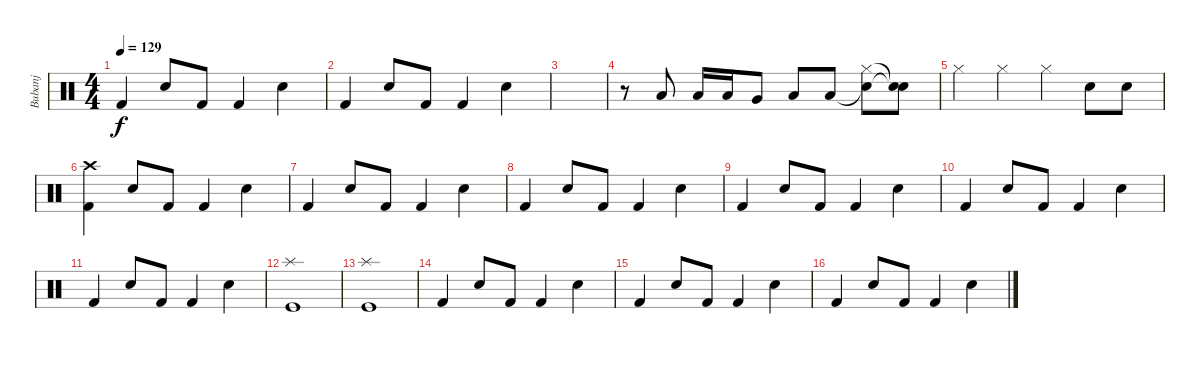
\track ("Bubanj" "Bubanj") {instrument percussion}
\staff {score}
\articulation defaults
\ts (4 4)
\tempo 129
\clef neutral
\ks c "Kick (hit) 2".4{dy f} "Electric Snare (hit)".8 "Kick (hit) 2".8 "Kick (hit) 2".4 "Electric Snare (hit)".4
|
"Kick (hit) 2".4 "Electric Snare (hit)".8 "Kick (hit) 2".8 "Kick (hit) 2".4 "Electric Snare (hit)".4 |
|
r.8 "Low Floor Tom (hit)".8 "Low Floor Tom (hit)".16 "Low Floor Tom (hit)".16 "Very Low Tom (hit)".8 "Low Floor Tom (hit)".8 "Low Floor Tom (hit)".8 ("Snare (hit)"{t} "Hi-Hat (closed)").8 ("Snare (hit)"{t} "Snare (hit)"{t}).8 |
"Hi-Hat (closed)".4 "Hi-Hat (closed)".4 "Hi-Hat (closed)".4 "Snare (hit) 2".8 "Snare (hit) 2".8 |
("Crash high (hit)" "Kick (hit) 2").4 "Electric Snare (hit)".8 "Kick (hit) 2".8 "Kick (hit) 2".4 "Electric Snare (hit)".4 |
"Kick (hit) 2".4 "Electric Snare (hit)".8 "Kick (hit) 2".8 "Kick (hit) 2".4 "Electric Snare (hit)".4 |
"Kick (hit) 2".4 "Electric Snare (hit)".8 "Kick (hit) 2".8 "Kick (hit) 2".4 "Electric Snare (hit)".4 |
"Kick (hit) 2".4 "Electric Snare (hit)".8 "Kick (hit) 2".8 "Kick (hit) 2".4 "Electric Snare (hit)".4 |
"Kick (hit) 2".4 "Electric Snare (hit)".8 "Kick (hit) 2".8 "Kick (hit) 2".4 "Electric Snare (hit)".4 |
"Kick (hit) 2".4 "Electric Snare (hit)".8 "Kick (hit) 2".8 "Kick (hit) 2".4 "Electric Snare (hit)".4 |
("Kick (hit)" "Splash (hit)").1 |
("Kick (hit)" "Splash (hit)").1 |
"Kick (hit) 2".4 "Electric Snare (hit)".8 "Kick (hit) 2".8 "Kick (hit) 2".4 "Electric Snare (hit)".4 |
"Kick (hit) 2".4 "Electric Snare (hit)".8 "Kick (hit) 2".8 "Kick (hit) 2".4 "Electric Snare (hit)".4 |
"Kick (hit) 2".4 "Electric Snare (hit)".8 "Kick (hit) 2".8 "Kick (hit) 2".4 "Electric Snare (hit)".4
